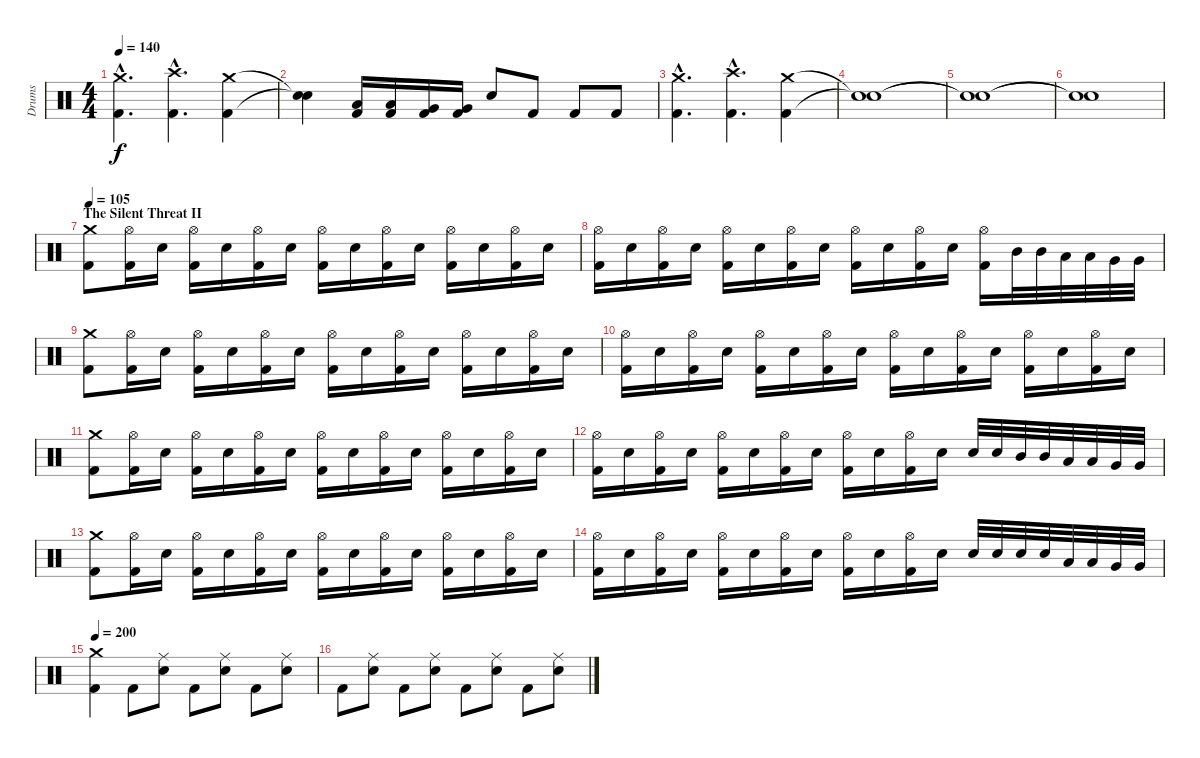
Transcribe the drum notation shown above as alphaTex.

\track ("Drums" "Drums") {instrument percussion}
\staff {score}
\articulation defaults
\ts (4 4)
\tempo 140
\clef neutral
\ks c
("Crash medium (hit)"{hac} "Kick (hit) 2"{hac}).4{d dy f} ("Crash high (hit)"{hac} "Kick (hit) 2"{hac}).4{d} ("Crash medium (hit)" "Kick (hit) 2").4 |
("Snare (hit)"{t} "Snare (hit)"{t}).4 ("Low Tom (hit)" "Kick (hit) 2").16 ("Low Tom (hit)" "Kick (hit) 2").16 ("Very Low Tom (hit)" "Kick (hit) 2").16 ("Very Low Tom (hit)" "Kick (hit) 2").16 "Electric Snare (hit)".8 "Kick (hit) 2".8 "Kick (hit) 2".8 "Kick (hit) 2".8 |
("Crash medium (hit)"{hac} "Kick (hit) 2"{hac}).4{d} ("Crash high (hit)"{hac} "Kick (hit) 2"{hac}).4{d} ("Crash medium (hit)" "Kick (hit) 2").4 |
("Snare (hit)"{t} "Snare (hit)"{t}).1 |
("Snare (hit)"{t} "Snare (hit)"{t}).1 |
("Snare (hit)"{t} "Snare (hit)"{t}).1 |
\section ("" "The Silent Threat II")
\tempo 105
("Crash medium (hit)" "Kick (hit) 2").8 ("Hi-Hat (open)" "Kick (hit) 2").16 "Electric Snare (hit)".16 ("Hi-Hat (open)" "Kick (hit) 2").16 "Electric Snare (hit)".16 ("Hi-Hat (open)" "Kick (hit) 2").16 "Electric Snare (hit)".16 ("Hi-Hat (open)" "Kick (hit) 2").16 "Electric Snare (hit)".16 ("Hi-Hat (open)" "Kick (hit) 2").16 "Electric Snare (hit)".16 ("Hi-Hat (open)" "Kick (hit) 2").16 "Electric Snare (hit)".16 ("Hi-Hat (open)" "Kick (hit) 2").16 "Electric Snare (hit)".16 |
("Hi-Hat (open)" "Kick (hit) 2").16 "Electric Snare (hit)".16 ("Hi-Hat (open)" "Kick (hit) 2").16 "Electric Snare (hit)".16 ("Hi-Hat (open)" "Kick (hit) 2").16 "Electric Snare (hit)".16 ("Hi-Hat (open)" "Kick (hit) 2").16 "Electric Snare (hit)".16 ("Hi-Hat (open)" "Kick (hit) 2").16 "Electric Snare (hit)".16 ("Hi-Hat (open)" "Kick (hit) 2").16 "Electric Snare (hit)".16 ("Hi-Hat (open)" "Kick (hit) 2").16 "Mid Tom (hit)".32 "Mid Tom (hit)".32 "Low Tom (hit)".32 "Low Tom (hit)".32 "Very Low Tom (hit)".32 "Very Low Tom (hit)".32 |
("Crash medium (hit)" "Kick (hit) 2").8 ("Hi-Hat (open)" "Kick (hit) 2").16 "Electric Snare (hit)".16 ("Hi-Hat (open)" "Kick (hit) 2").16 "Electric Snare (hit)".16 ("Hi-Hat (open)" "Kick (hit) 2").16 "Electric Snare (hit)".16 ("Hi-Hat (open)" "Kick (hit) 2").16 "Electric Snare (hit)".16 ("Hi-Hat (open)" "Kick (hit) 2").16 "Electric Snare (hit)".16 ("Hi-Hat (open)" "Kick (hit) 2").16 "Electric Snare (hit)".16 ("Hi-Hat (open)" "Kick (hit) 2").16 "Electric Snare (hit)".16 |
("Hi-Hat (open)" "Kick (hit) 2").16 "Electric Snare (hit)".16 ("Hi-Hat (open)" "Kick (hit) 2").16 "Electric Snare (hit)".16 ("Hi-Hat (open)" "Kick (hit) 2").16 "Electric Snare (hit)".16 ("Hi-Hat (open)" "Kick (hit) 2").16 "Electric Snare (hit)".16 ("Hi-Hat (open)" "Kick (hit) 2").16 "Electric Snare (hit)".16 ("Hi-Hat (open)" "Kick (hit) 2").16 "Electric Snare (hit)".16 ("Hi-Hat (open)" "Kick (hit) 2").16 "Electric Snare (hit)".16 ("Hi-Hat (open)" "Kick (hit) 2").16 "Electric Snare (hit)".16 |
("Crash medium (hit)" "Kick (hit) 2").8 ("Hi-Hat (open)" "Kick (hit) 2").16 "Electric Snare (hit)".16 ("Hi-Hat (open)" "Kick (hit) 2").16 "Electric Snare (hit)".16 ("Hi-Hat (open)" "Kick (hit) 2").16 "Electric Snare (hit)".16 ("Hi-Hat (open)" "Kick (hit) 2").16 "Electric Snare (hit)".16 ("Hi-Hat (open)" "Kick (hit) 2").16 "Electric Snare (hit)".16 ("Hi-Hat (open)" "Kick (hit) 2").16 "Electric Snare (hit)".16 ("Hi-Hat (open)" "Kick (hit) 2").16 "Electric Snare (hit)".16 |
("Hi-Hat (open)" "Kick (hit) 2").16 "Electric Snare (hit)".16 ("Hi-Hat (open)" "Kick (hit) 2").16 "Electric Snare (hit)".16 ("Hi-Hat (open)" "Kick (hit) 2").16 "Electric Snare (hit)".16 ("Hi-Hat (open)" "Kick (hit) 2").16 "Electric Snare (hit)".16 ("Hi-Hat (open)" "Kick (hit) 2").16 "Electric Snare (hit)".16 ("Hi-Hat (open)" "Kick (hit) 2").16 "Electric Snare (hit)".16 "Electric Snare (hit)".32 "Electric Snare (hit)".32 "Mid Tom (hit)".32 "Mid Tom (hit)".32 "Low Tom (hit)".32 "Low Tom (hit)".32 "Very Low Tom (hit)".32 "Very Low Tom (hit)".32 |
("Crash medium (hit)" "Kick (hit) 2").8 ("Hi-Hat (open)" "Kick (hit) 2").16 "Electric Snare (hit)".16 ("Hi-Hat (open)" "Kick (hit) 2").16 "Electric Snare (hit)".16 ("Hi-Hat (open)" "Kick (hit) 2").16 "Electric Snare (hit)".16 ("Hi-Hat (open)" "Kick (hit) 2").16 "Electric Snare (hit)".16 ("Hi-Hat (open)" "Kick (hit) 2").16 "Electric Snare (hit)".16 ("Hi-Hat (open)" "Kick (hit) 2").16 "Electric Snare (hit)".16 ("Hi-Hat (open)" "Kick (hit) 2").16 "Electric Snare (hit)".16 |
("Hi-Hat (open)" "Kick (hit) 2").16 "Electric Snare (hit)".16 ("Hi-Hat (open)" "Kick (hit) 2").16 "Electric Snare (hit)".16 ("Hi-Hat (open)" "Kick (hit) 2").16 "Electric Snare (hit)".16 ("Hi-Hat (open)" "Kick (hit) 2").16 "Electric Snare (hit)".16 ("Hi-Hat (open)" "Kick (hit) 2").16 "Electric Snare (hit)".16 ("Hi-Hat (open)" "Kick (hit) 2").16 "Electric Snare (hit)".16 "Electric Snare (hit)".32 "Electric Snare (hit)".32 "Electric Snare (hit)".32 "Electric Snare (hit)".32 "Low Tom (hit)".32 "Low Tom (hit)".32 "Very Low Tom (hit)".32 "Very Low Tom (hit)".32 |
\section ("" "")
\tempo 200
("Crash medium (hit)" "Kick (hit) 2").4 "Kick (hit) 2".8 ("Ride (middle)" "Electric Snare (hit)").8 "Kick (hit) 2".8 ("Ride (middle)" "Electric Snare (hit)").8 "Kick (hit) 2".8 ("Ride (middle)" "Electric Snare (hit)").8 |
"Kick (hit) 2".8 ("Ride (middle)" "Electric Snare (hit)").8 "Kick (hit) 2".8 ("Ride (middle)" "Electric Snare (hit)").8 "Kick (hit) 2".8 ("Ride (middle)" "Electric Snare (hit)").8 "Kick (hit) 2".8 ("Ride (middle)" "Electric Snare (hit)").8
